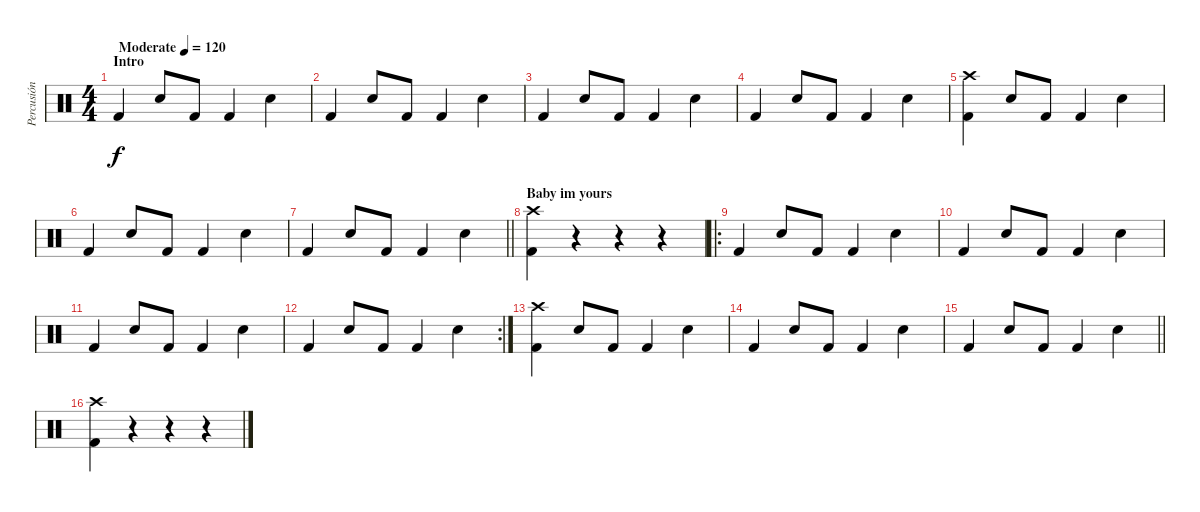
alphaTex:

\track ("Percusión" "Percusión") {instrument percussion}
\staff {score}
\articulation defaults
\ts (4 4)
\section ("" "Intro")
\tempo (120 "Moderate")
\clef neutral
\ks c "Kick (hit) 2".4{dy f} "Snare (hit) 2".8 "Kick (hit) 2".8 "Kick (hit) 2".4 "Snare (hit) 2".4
|
"Kick (hit) 2".4 "Snare (hit) 2".8 "Kick (hit) 2".8 "Kick (hit) 2".4 "Snare (hit) 2".4 |
"Kick (hit) 2".4 "Snare (hit) 2".8 "Kick (hit) 2".8 "Kick (hit) 2".4 "Snare (hit) 2".4 |
"Kick (hit) 2".4 "Snare (hit) 2".8 "Kick (hit) 2".8 "Kick (hit) 2".4 "Snare (hit) 2".4 |
("Crash high (hit)" "Kick (hit) 2").4 "Snare (hit) 2".8 "Kick (hit) 2".8 "Kick (hit) 2".4 "Snare (hit) 2".4 |
"Kick (hit) 2".4 "Snare (hit) 2".8 "Kick (hit) 2".8 "Kick (hit) 2".4 "Snare (hit) 2".4 |
\barLineRight lightlight "Kick (hit) 2".4 "Snare (hit) 2".8 "Kick (hit) 2".8 "Kick (hit) 2".4 "Snare (hit) 2".4
|
\section ("" "Baby im yours")
("Crash high (hit)" "Kick (hit) 2").4 r.4 r.4 r.4 |
\ro "Kick (hit) 2".4 "Snare (hit) 2".8 "Kick (hit) 2".8 "Kick (hit) 2".4 "Snare (hit) 2".4
|
"Kick (hit) 2".4 "Snare (hit) 2".8 "Kick (hit) 2".8 "Kick (hit) 2".4 "Snare (hit) 2".4 |
"Kick (hit) 2".4 "Snare (hit) 2".8 "Kick (hit) 2".8 "Kick (hit) 2".4 "Snare (hit) 2".4 |
\rc 2 "Kick (hit) 2".4 "Snare (hit) 2".8 "Kick (hit) 2".8 "Kick (hit) 2".4 "Snare (hit) 2".4
|
("Crash high (hit)" "Kick (hit) 2").4 "Snare (hit) 2".8 "Kick (hit) 2".8 "Kick (hit) 2".4 "Snare (hit) 2".4 |
"Kick (hit) 2".4 "Snare (hit) 2".8 "Kick (hit) 2".8 "Kick (hit) 2".4 "Snare (hit) 2".4 |
\barLineRight lightlight "Kick (hit) 2".4 "Snare (hit) 2".8 "Kick (hit) 2".8 "Kick (hit) 2".4 "Snare (hit) 2".4
|
("Crash high (hit)" "Kick (hit) 2").4 r.4 r.4 r.4
